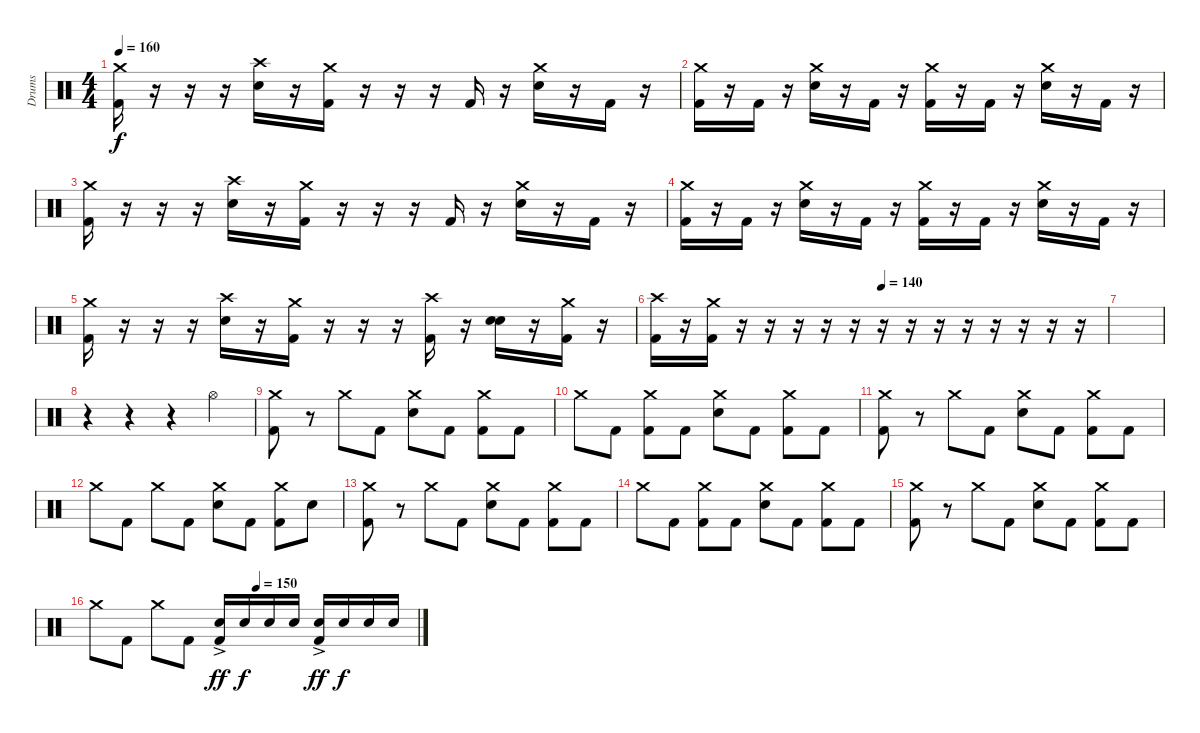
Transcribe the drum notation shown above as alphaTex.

\track ("Drums" "Drums") {instrument percussion}
\staff {score}
\articulation defaults
\ts (4 4)
\tempo 160
\clef neutral
\ks c
("Crash medium (hit)" "Kick (hit) 2").16{dy f} r.16 r.16 r.16 ("Crash high (hit)" "Electric Snare (hit)").16 r.16 ("Crash medium (hit)" "Kick (hit) 2").16 r.16 r.16 r.16 "Kick (hit) 2".16 r.16 ("Crash medium (hit)" "Electric Snare (hit)").16 r.16 "Kick (hit) 2".16 r.16 |
("Crash medium (hit)" "Kick (hit) 2").16 r.16 "Kick (hit) 2".16 r.16 ("Crash medium (hit)" "Electric Snare (hit)").16 r.16 "Kick (hit) 2".16 r.16 ("Crash medium (hit)" "Kick (hit) 2").16 r.16 "Kick (hit) 2".16 r.16 ("Crash medium (hit)" "Electric Snare (hit)").16 r.16 "Kick (hit) 2".16 r.16 |
("Crash medium (hit)" "Kick (hit) 2").16 r.16 r.16 r.16 ("Crash high (hit)" "Electric Snare (hit)").16 r.16 ("Crash medium (hit)" "Kick (hit) 2").16 r.16 r.16 r.16 "Kick (hit) 2".16 r.16 ("Crash medium (hit)" "Electric Snare (hit)").16 r.16 "Kick (hit) 2".16 r.16 |
("Crash medium (hit)" "Kick (hit) 2").16 r.16 "Kick (hit) 2".16 r.16 ("Crash medium (hit)" "Electric Snare (hit)").16 r.16 "Kick (hit) 2".16 r.16 ("Crash medium (hit)" "Kick (hit) 2").16 r.16 "Kick (hit) 2".16 r.16 ("Crash medium (hit)" "Electric Snare (hit)").16 r.16 "Kick (hit) 2".16 r.16 |
("Crash medium (hit)" "Kick (hit) 2").16 r.16 r.16 r.16 ("Crash high (hit)" "Electric Snare (hit)").16 r.16 ("Crash medium (hit)" "Kick (hit) 2").16 r.16 r.16 r.16 ("Crash high (hit)" "Kick (hit) 2").16 r.16 ("Electric Snare (hit)" "Electric Snare (hit)").16{bu 480} r.16 ("Crash medium (hit)" "Kick (hit) 2").16 r.16 |
\tempo (140 0.5)
("Crash high (hit)" "Kick (hit) 2").16 r.16 ("Crash medium (hit)" "Kick (hit) 2").16 r.16 r.16 r.16 r.16 r.16 r.16 r.16 r.16 r.16 r.16 r.16 r.16 r.16 |
|
r.4 r.4 r.4 "Hi-Hat (open)".4 |
("Crash medium (hit)" "Kick (hit) 2").8 r.8 "Crash medium (hit)".8 "Kick (hit) 2".8 ("Crash medium (hit)" "Electric Snare (hit)").8 "Kick (hit) 2".8 ("Crash medium (hit)" "Kick (hit) 2").8 "Kick (hit) 2".8 |
"Crash medium (hit)".8 "Kick (hit) 2".8 ("Crash medium (hit)" "Kick (hit) 2").8 "Kick (hit) 2".8 ("Crash medium (hit)" "Electric Snare (hit)").8 "Kick (hit) 2".8 ("Crash medium (hit)" "Kick (hit) 2").8 "Kick (hit) 2".8 |
("Crash medium (hit)" "Kick (hit) 2").8 r.8 "Crash medium (hit)".8 "Kick (hit) 2".8 ("Crash medium (hit)" "Electric Snare (hit)").8 "Kick (hit) 2".8 ("Crash medium (hit)" "Kick (hit) 2").8 "Kick (hit) 2".8 |
"Crash medium (hit)".8 "Kick (hit) 2".8 "Crash medium (hit)".8 "Kick (hit) 2".8 ("Crash medium (hit)" "Electric Snare (hit)").8 "Kick (hit) 2".8 ("Crash medium (hit)" "Kick (hit) 2").8 "Electric Snare (hit)".8 |
("Crash medium (hit)" "Kick (hit) 2").8 r.8 "Crash medium (hit)".8 "Kick (hit) 2".8 ("Crash medium (hit)" "Electric Snare (hit)").8 "Kick (hit) 2".8 ("Crash medium (hit)" "Kick (hit) 2").8 "Kick (hit) 2".8 |
"Crash medium (hit)".8 "Kick (hit) 2".8 ("Crash medium (hit)" "Kick (hit) 2").8 "Kick (hit) 2".8 ("Crash medium (hit)" "Electric Snare (hit)").8 "Kick (hit) 2".8 ("Crash medium (hit)" "Kick (hit) 2").8 "Kick (hit) 2".8 |
("Crash medium (hit)" "Kick (hit) 2").8 r.8 "Crash medium (hit)".8 "Kick (hit) 2".8 ("Crash medium (hit)" "Electric Snare (hit)").8 "Kick (hit) 2".8 ("Crash medium (hit)" "Kick (hit) 2").8 "Kick (hit) 2".8 |
\tempo (150 0.5)
"Crash medium (hit)".8 "Kick (hit) 2".8 "Crash medium (hit)".8 "Kick (hit) 2".8 ("Electric Snare (hit)"{ac} "Kick (hit) 2").16{dy ff} "Electric Snare (hit)".16{dy f} "Electric Snare (hit)".16 "Electric Snare (hit)".16 ("Electric Snare (hit)"{ac} "Kick (hit) 2").16{dy ff} "Electric Snare (hit)".16{dy f} "Electric Snare (hit)".16 "Electric Snare (hit)".16
